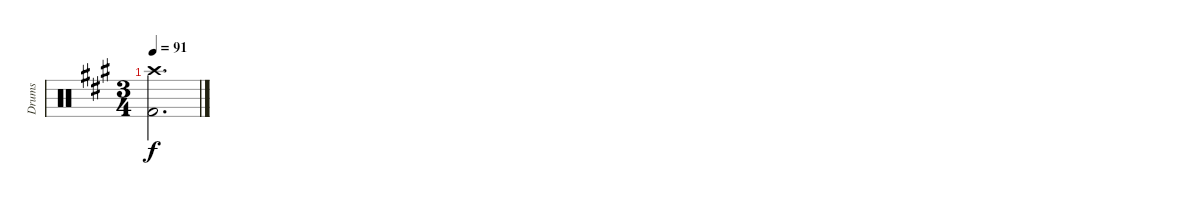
\track ("Drums" "Drums") {instrument percussion}
\staff {score}
\articulation defaults
\ts (3 4)
\tempo 91
\clef neutral
\ks a
("Kick (hit) 2" "Crash high (hit)").2{d dy f}
